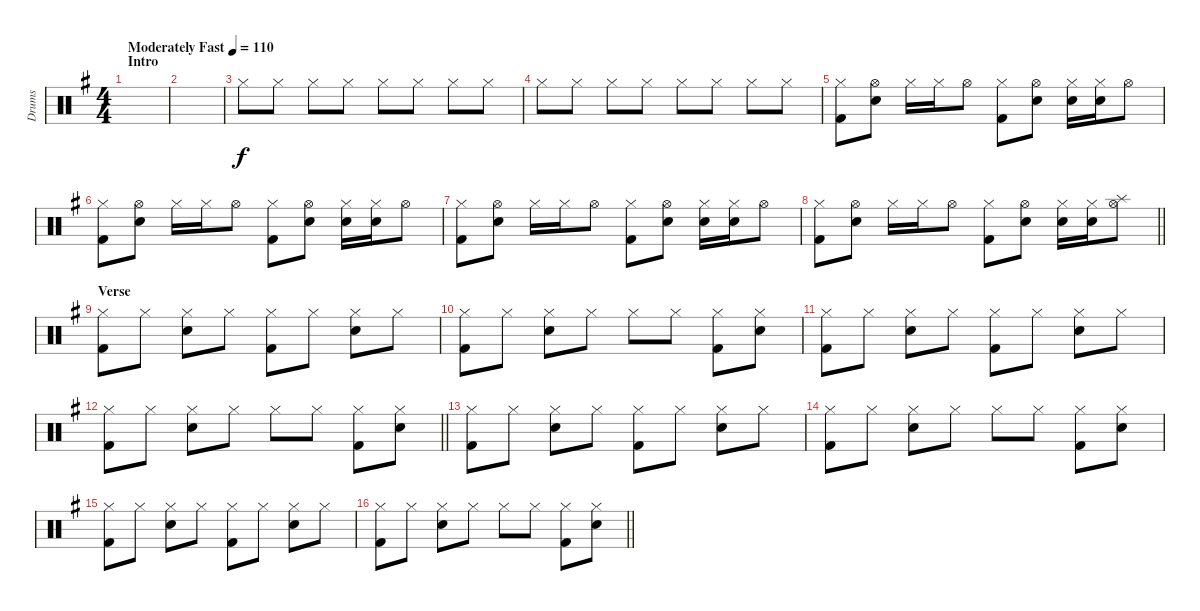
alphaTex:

\track ("Drums" "Drums") {instrument percussion}
\staff {score}
\articulation defaults
\ts (4 4)
\section ("" "Intro")
\tempo (110 "Moderately Fast")
\clef neutral
\ks g
|
|
"Hi-Hat (closed)".8 "Hi-Hat (closed)".8 "Hi-Hat (closed)".8 "Hi-Hat (closed)".8 "Hi-Hat (closed)".8 "Hi-Hat (closed)".8 "Hi-Hat (closed)".8 "Hi-Hat (closed)".8 |
"Hi-Hat (closed)".8 "Hi-Hat (closed)".8 "Hi-Hat (closed)".8 "Hi-Hat (closed)".8 "Hi-Hat (closed)".8 "Hi-Hat (closed)".8 "Hi-Hat (closed)".8 "Hi-Hat (closed)".8 |
("Hi-Hat (closed)" "Kick (hit) 2").8 ("Snare (hit) 2" "Hi-Hat (open)").8 "Hi-Hat (closed)".16 "Hi-Hat (closed)".16 "Hi-Hat (open)".8 ("Hi-Hat (closed)" "Kick (hit) 2").8 ("Snare (hit) 2" "Hi-Hat (open)").8 ("Hi-Hat (closed)" "Snare (hit) 2").16 ("Hi-Hat (closed)" "Snare (hit) 2").16 "Hi-Hat (open)".8 |
("Hi-Hat (closed)" "Kick (hit) 2").8 ("Snare (hit) 2" "Hi-Hat (open)").8 "Hi-Hat (closed)".16 "Hi-Hat (closed)".16 "Hi-Hat (open)".8 ("Hi-Hat (closed)" "Kick (hit) 2").8 ("Snare (hit) 2" "Hi-Hat (open)").8 ("Hi-Hat (closed)" "Snare (hit) 2").16 ("Hi-Hat (closed)" "Snare (hit) 2").16 "Hi-Hat (open)".8 |
("Hi-Hat (closed)" "Kick (hit) 2").8 ("Snare (hit) 2" "Hi-Hat (open)").8 "Hi-Hat (closed)".16 "Hi-Hat (closed)".16 "Hi-Hat (open)".8 ("Hi-Hat (closed)" "Kick (hit) 2").8 ("Snare (hit) 2" "Hi-Hat (open)").8 ("Hi-Hat (closed)" "Snare (hit) 2").16 ("Hi-Hat (closed)" "Snare (hit) 2").16 "Hi-Hat (open)".8 |
\barLineRight lightlight
("Hi-Hat (closed)" "Kick (hit) 2").8 ("Snare (hit) 2" "Hi-Hat (open)").8 "Hi-Hat (closed)".16 "Hi-Hat (closed)".16 "Hi-Hat (open)".8 ("Hi-Hat (closed)" "Kick (hit) 2").8 ("Snare (hit) 2" "Hi-Hat (open)").8 ("Hi-Hat (closed)" "Snare (hit) 2").16 ("Hi-Hat (closed)" "Snare (hit) 2").16 ("Splash (hit)" "Hi-Hat (open)").8 |
\section ("" "Verse")
("Hi-Hat (closed)" "Kick (hit) 2").8 "Hi-Hat (closed)".8 ("Snare (hit) 2" "Hi-Hat (closed)").8 "Hi-Hat (closed)".8 ("Hi-Hat (closed)" "Kick (hit) 2").8 "Hi-Hat (closed)".8 ("Snare (hit) 2" "Hi-Hat (closed)").8 "Hi-Hat (closed)".8 |
("Hi-Hat (closed)" "Kick (hit) 2").8 "Hi-Hat (closed)".8 ("Snare (hit) 2" "Hi-Hat (closed)").8 "Hi-Hat (closed)".8 "Hi-Hat (closed)".8 "Hi-Hat (closed)".8 ("Hi-Hat (closed)" "Kick (hit) 2").8 ("Snare (hit) 2" "Hi-Hat (closed)").8 |
("Hi-Hat (closed)" "Kick (hit) 2").8 "Hi-Hat (closed)".8 ("Snare (hit) 2" "Hi-Hat (closed)").8 "Hi-Hat (closed)".8 ("Hi-Hat (closed)" "Kick (hit) 2").8 "Hi-Hat (closed)".8 ("Snare (hit) 2" "Hi-Hat (closed)").8 "Hi-Hat (closed)".8 |
\barLineRight lightlight
("Hi-Hat (closed)" "Kick (hit) 2").8 "Hi-Hat (closed)".8 ("Snare (hit) 2" "Hi-Hat (closed)").8 "Hi-Hat (closed)".8 "Hi-Hat (closed)".8 "Hi-Hat (closed)".8 ("Hi-Hat (closed)" "Kick (hit) 2").8 ("Snare (hit) 2" "Hi-Hat (closed)").8 |
("Hi-Hat (closed)" "Kick (hit) 2").8 "Hi-Hat (closed)".8 ("Snare (hit) 2" "Hi-Hat (closed)").8 "Hi-Hat (closed)".8 ("Hi-Hat (closed)" "Kick (hit) 2").8 "Hi-Hat (closed)".8 ("Snare (hit) 2" "Hi-Hat (closed)").8 "Hi-Hat (closed)".8 |
("Hi-Hat (closed)" "Kick (hit) 2").8 "Hi-Hat (closed)".8 ("Snare (hit) 2" "Hi-Hat (closed)").8 "Hi-Hat (closed)".8 "Hi-Hat (closed)".8 "Hi-Hat (closed)".8 ("Hi-Hat (closed)" "Kick (hit) 2").8 ("Snare (hit) 2" "Hi-Hat (closed)").8 |
("Hi-Hat (closed)" "Kick (hit) 2").8 "Hi-Hat (closed)".8 ("Snare (hit) 2" "Hi-Hat (closed)").8 "Hi-Hat (closed)".8 ("Hi-Hat (closed)" "Kick (hit) 2").8 "Hi-Hat (closed)".8 ("Snare (hit) 2" "Hi-Hat (closed)").8 "Hi-Hat (closed)".8 |
\barLineRight lightlight
("Hi-Hat (closed)" "Kick (hit) 2").8 "Hi-Hat (closed)".8 ("Snare (hit) 2" "Hi-Hat (closed)").8 "Hi-Hat (closed)".8 "Hi-Hat (closed)".8 "Hi-Hat (closed)".8 ("Hi-Hat (closed)" "Kick (hit) 2").8 ("Snare (hit) 2" "Hi-Hat (closed)").8
